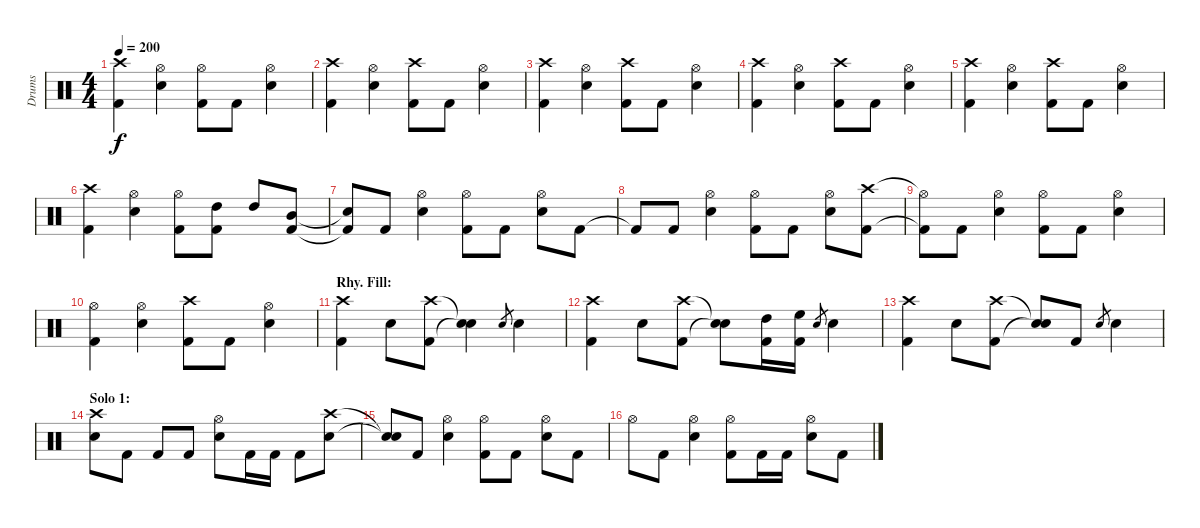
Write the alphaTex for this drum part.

\track ("Drums" "Drums") {instrument percussion}
\staff {score}
\articulation defaults
\ts (4 4)
\tempo 200
\clef neutral
\ks c
("Crash high (hit)" "Kick (hit) 2").4{dy f} ("Hi-Hat (open)" "Electric Snare (hit)").4 ("Hi-Hat (open)" "Kick (hit) 2").8 "Kick (hit) 2".8 ("Hi-Hat (open)" "Electric Snare (hit)").4 |
("Crash high (hit)" "Kick (hit) 2").4 ("Hi-Hat (open)" "Electric Snare (hit)").4 ("Crash high (hit)" "Kick (hit) 2").8 "Kick (hit) 2".8 ("Hi-Hat (open)" "Electric Snare (hit)").4 |
("Crash high (hit)" "Kick (hit) 2").4 ("Hi-Hat (open)" "Electric Snare (hit)").4 ("Crash high (hit)" "Kick (hit) 2").8 "Kick (hit) 2".8 ("Hi-Hat (open)" "Electric Snare (hit)").4 |
("Crash high (hit)" "Kick (hit) 2").4 ("Hi-Hat (open)" "Electric Snare (hit)").4 ("Crash high (hit)" "Kick (hit) 2").8 "Kick (hit) 2".8 ("Hi-Hat (open)" "Electric Snare (hit)").4 |
("Crash high (hit)" "Kick (hit) 2").4 ("Hi-Hat (open)" "Electric Snare (hit)").4 ("Crash high (hit)" "Kick (hit) 2").8 "Kick (hit) 2".8 ("Hi-Hat (open)" "Electric Snare (hit)").4 |
("Crash high (hit)" "Kick (hit) 2").4 ("Hi-Hat (open)" "Electric Snare (hit)").4 ("Hi-Hat (open)" "Kick (hit) 2").8 ("High Tom (hit)" "Kick (hit) 2").8 "High Tom (hit)".8 ("Mid Tom (hit)" "Kick (hit) 2").8 |
("Snare (hit)"{t} "Kick (hit) 2"{t}).8 "Kick (hit) 2".8 ("Hi-Hat (open)" "Electric Snare (hit)").4 ("Hi-Hat (open)" "Kick (hit) 2").8 "Kick (hit) 2".8 ("Hi-Hat (open)" "Electric Snare (hit)").8 "Kick (hit) 2".8 |
"Kick (hit) 2"{t}.8 "Kick (hit) 2".8 ("Hi-Hat (open)" "Electric Snare (hit)").4 ("Hi-Hat (open)" "Kick (hit) 2").8 "Kick (hit) 2".8 ("Hi-Hat (open)" "Electric Snare (hit)").8 ("Crash high (hit)" "Kick (hit) 2").8 |
("Hi-Hat (open)"{t} "Kick (hit) 2"{t}).8 "Kick (hit) 2".8 ("Hi-Hat (open)" "Electric Snare (hit)").4 ("Hi-Hat (open)" "Kick (hit) 2").8 "Kick (hit) 2".8 ("Hi-Hat (open)" "Electric Snare (hit)").4 |
("Hi-Hat (open)" "Kick (hit) 2").4 ("Hi-Hat (open)" "Electric Snare (hit)").4 ("Crash high (hit)" "Kick (hit) 2").8 "Kick (hit) 2".8 ("Hi-Hat (open)" "Electric Snare (hit)").4 |
\section ("" "Rhy. Fill:")
("Crash high (hit)" "Kick (hit) 2").4 "Electric Snare (hit)".8 ("Crash high (hit)" "Kick (hit) 2").8 ("Snare (hit)"{t} "Snare (hit)"{t}).4 "Electric Snare (hit)".8{gr} "Electric Snare (hit)".4 |
("Crash high (hit)" "Kick (hit) 2").4 "Electric Snare (hit)".8 ("Crash high (hit)" "Kick (hit) 2").8 ("Snare (hit)"{t} "Snare (hit)"{t}).8 ("High Tom (hit)" "Kick (hit) 2").16 ("High Floor Tom (hit)" "Kick (hit) 2").16 "Electric Snare (hit)".8{gr} "Electric Snare (hit)".4 |
("Crash high (hit)" "Kick (hit) 2").4 "Electric Snare (hit)".8 ("Crash high (hit)" "Kick (hit) 2").8 ("Snare (hit)"{t} "Snare (hit)"{t}).8 "Kick (hit) 2".8 "Electric Snare (hit)".8{gr} "Electric Snare (hit)".4 |
\section ("" "Solo 1:")
("Crash high (hit)" "Electric Snare (hit)").8 "Kick (hit) 2".8 "Kick (hit) 2".8 "Kick (hit) 2".8 ("Hi-Hat (open)" "Electric Snare (hit)").8 "Kick (hit) 2".16 "Kick (hit) 2".16 "Kick (hit) 2".8 ("Crash high (hit)" "Electric Snare (hit)").8 |
("Snare (hit)"{t} "Snare (hit)"{t}).8 "Kick (hit) 2".8 ("Hi-Hat (open)" "Electric Snare (hit)").4 ("Hi-Hat (open)" "Kick (hit) 2").8 "Kick (hit) 2".8 ("Hi-Hat (open)" "Electric Snare (hit)").8 "Kick (hit) 2".8 |
"Hi-Hat (open)".8 "Kick (hit) 2".8 ("Hi-Hat (open)" "Electric Snare (hit)").4 ("Hi-Hat (open)" "Kick (hit) 2").8 "Kick (hit) 2".16 "Kick (hit) 2".16 ("Hi-Hat (open)" "Electric Snare (hit)").8 "Kick (hit) 2".8
